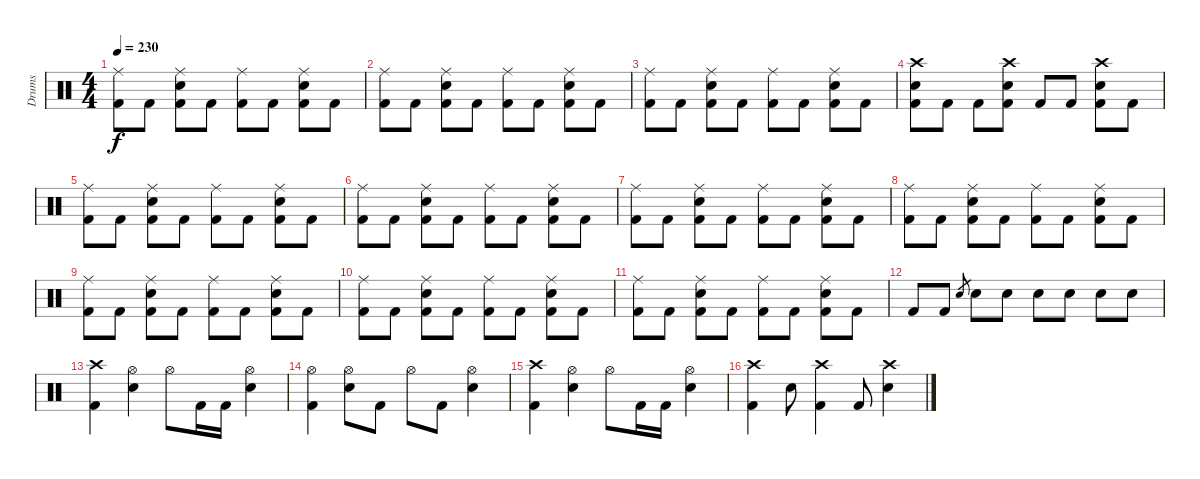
\track ("Drums" "Drums") {instrument percussion}
\staff {score}
\articulation defaults
\ts (4 4)
\tempo 230
\clef neutral
\ks c
("Ride (middle)" "Kick (hit) 2").8{dy f} "Kick (hit) 2".8 ("Ride (middle)" "Electric Snare (hit)" "Kick (hit) 2").8 "Kick (hit) 2".8 ("Ride (middle)" "Kick (hit) 2").8 "Kick (hit) 2".8 ("Ride (middle)" "Electric Snare (hit)" "Kick (hit) 2").8 "Kick (hit) 2".8 |
("Ride (middle)" "Kick (hit) 2").8 "Kick (hit) 2".8 ("Ride (middle)" "Electric Snare (hit)" "Kick (hit) 2").8 "Kick (hit) 2".8 ("Ride (middle)" "Kick (hit) 2").8 "Kick (hit) 2".8 ("Ride (middle)" "Electric Snare (hit)" "Kick (hit) 2").8 "Kick (hit) 2".8 |
("Ride (middle)" "Kick (hit) 2").8 "Kick (hit) 2".8 ("Ride (middle)" "Electric Snare (hit)" "Kick (hit) 2").8 "Kick (hit) 2".8 ("Ride (middle)" "Kick (hit) 2").8 "Kick (hit) 2".8 ("Ride (middle)" "Electric Snare (hit)" "Kick (hit) 2").8 "Kick (hit) 2".8 |
("Crash high (hit)" "Electric Snare (hit)" "Kick (hit) 2").8 "Kick (hit) 2".8 "Kick (hit) 2".8 ("Crash high (hit)" "Electric Snare (hit)" "Kick (hit) 2").8 "Kick (hit) 2".8 "Kick (hit) 2".8 ("Crash high (hit)" "Electric Snare (hit)" "Kick (hit) 2").8 "Kick (hit) 2".8 |
("Ride (middle)" "Kick (hit) 2").8 "Kick (hit) 2".8 ("Ride (middle)" "Electric Snare (hit)" "Kick (hit) 2").8 "Kick (hit) 2".8 ("Ride (middle)" "Kick (hit) 2").8 "Kick (hit) 2".8 ("Ride (middle)" "Electric Snare (hit)" "Kick (hit) 2").8 "Kick (hit) 2".8 |
("Ride (middle)" "Kick (hit) 2").8 "Kick (hit) 2".8 ("Ride (middle)" "Electric Snare (hit)" "Kick (hit) 2").8 "Kick (hit) 2".8 ("Ride (middle)" "Kick (hit) 2").8 "Kick (hit) 2".8 ("Ride (middle)" "Electric Snare (hit)" "Kick (hit) 2").8 "Kick (hit) 2".8 |
("Ride (middle)" "Kick (hit) 2").8 "Kick (hit) 2".8 ("Ride (middle)" "Electric Snare (hit)" "Kick (hit) 2").8 "Kick (hit) 2".8 ("Ride (middle)" "Kick (hit) 2").8 "Kick (hit) 2".8 ("Ride (middle)" "Electric Snare (hit)" "Kick (hit) 2").8 "Kick (hit) 2".8 |
("Ride (middle)" "Kick (hit) 2").8 "Kick (hit) 2".8 ("Ride (middle)" "Electric Snare (hit)" "Kick (hit) 2").8 "Kick (hit) 2".8 ("Ride (middle)" "Kick (hit) 2").8 "Kick (hit) 2".8 ("Ride (middle)" "Electric Snare (hit)" "Kick (hit) 2").8 "Kick (hit) 2".8 |
("Ride (middle)" "Kick (hit) 2").8 "Kick (hit) 2".8 ("Ride (middle)" "Electric Snare (hit)" "Kick (hit) 2").8 "Kick (hit) 2".8 ("Ride (middle)" "Kick (hit) 2").8 "Kick (hit) 2".8 ("Ride (middle)" "Electric Snare (hit)" "Kick (hit) 2").8 "Kick (hit) 2".8 |
("Ride (middle)" "Kick (hit) 2").8 "Kick (hit) 2".8 ("Ride (middle)" "Electric Snare (hit)" "Kick (hit) 2").8 "Kick (hit) 2".8 ("Ride (middle)" "Kick (hit) 2").8 "Kick (hit) 2".8 ("Ride (middle)" "Electric Snare (hit)" "Kick (hit) 2").8 "Kick (hit) 2".8 |
("Ride (middle)" "Kick (hit) 2").8 "Kick (hit) 2".8 ("Ride (middle)" "Electric Snare (hit)" "Kick (hit) 2").8 "Kick (hit) 2".8 ("Ride (middle)" "Kick (hit) 2").8 "Kick (hit) 2".8 ("Ride (middle)" "Electric Snare (hit)" "Kick (hit) 2").8 "Kick (hit) 2".8 |
"Kick (hit) 2".8 "Kick (hit) 2".8 "Electric Snare (hit)".8{gr} "Electric Snare (hit)".8 "Electric Snare (hit)".8 "Electric Snare (hit)".8 "Electric Snare (hit)".8 "Electric Snare (hit)".8 "Electric Snare (hit)".8 |
("Crash high (hit)" "Kick (hit) 2").4 ("Hi-Hat (open)" "Electric Snare (hit)").4 "Hi-Hat (open)".8 "Kick (hit) 2".16 "Kick (hit) 2".16 ("Hi-Hat (open)" "Electric Snare (hit)").4 |
("Hi-Hat (open)" "Kick (hit) 2").4 ("Hi-Hat (open)" "Electric Snare (hit)").8 "Kick (hit) 2".8 "Hi-Hat (open)".8 "Kick (hit) 2".8 ("Hi-Hat (open)" "Electric Snare (hit)").4 |
("Crash high (hit)" "Kick (hit) 2").4 ("Hi-Hat (open)" "Electric Snare (hit)").4 "Hi-Hat (open)".8 "Kick (hit) 2".16 "Kick (hit) 2".16 ("Hi-Hat (open)" "Electric Snare (hit)").4 |
("Crash high (hit)" "Kick (hit) 2").4 "Electric Snare (hit)".8 ("Crash high (hit)" "Kick (hit) 2").4 "Kick (hit) 2".8 ("Crash high (hit)" "Electric Snare (hit)").4
